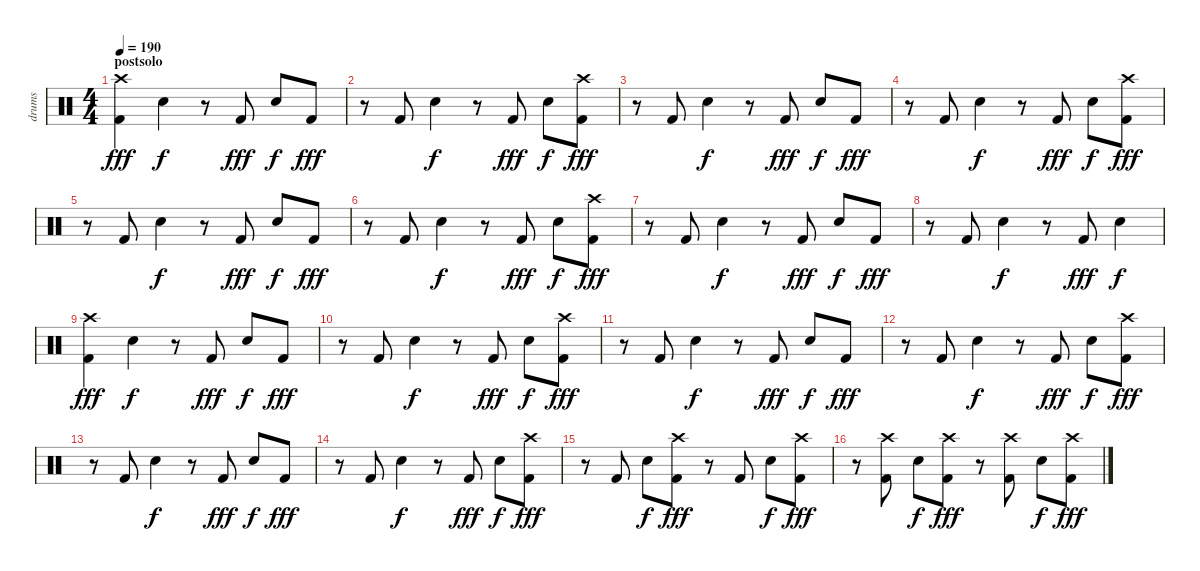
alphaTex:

\track ("drums" "drums") {instrument percussion}
\staff {score}
\articulation defaults
\ts (4 4)
\section ("" "postsolo")
\tempo 190
\clef neutral
\ks c
("Crash high (hit)" "Kick (hit) 2").4{dy fff} "Snare (hit) 2".4{dy f} r.8 "Kick (hit) 2".8{dy fff} "Snare (hit) 2".8{dy f} "Kick (hit) 2".8{dy fff} |
r.8 "Kick (hit) 2".8 "Snare (hit) 2".4{dy f} r.8 "Kick (hit) 2".8{dy fff} "Snare (hit) 2".8{dy f} ("Crash high (hit)" "Kick (hit) 2").8{dy fff} |
r.8 "Kick (hit) 2".8 "Snare (hit) 2".4{dy f} r.8 "Kick (hit) 2".8{dy fff} "Snare (hit) 2".8{dy f} "Kick (hit) 2".8{dy fff} |
r.8 "Kick (hit) 2".8 "Snare (hit) 2".4{dy f} r.8 "Kick (hit) 2".8{dy fff} "Snare (hit) 2".8{dy f} ("Crash high (hit)" "Kick (hit) 2").8{dy fff} |
r.8 "Kick (hit) 2".8 "Snare (hit) 2".4{dy f} r.8 "Kick (hit) 2".8{dy fff} "Snare (hit) 2".8{dy f} "Kick (hit) 2".8{dy fff} |
r.8 "Kick (hit) 2".8 "Snare (hit) 2".4{dy f} r.8 "Kick (hit) 2".8{dy fff} "Snare (hit) 2".8{dy f} ("Crash high (hit)" "Kick (hit) 2").8{dy fff} |
r.8 "Kick (hit) 2".8 "Snare (hit) 2".4{dy f} r.8 "Kick (hit) 2".8{dy fff} "Snare (hit) 2".8{dy f} "Kick (hit) 2".8{dy fff} |
r.8 "Kick (hit) 2".8 "Snare (hit) 2".4{dy f} r.8 "Kick (hit) 2".8{dy fff} "Snare (hit) 2".4{dy f} |
("Crash high (hit)" "Kick (hit) 2").4{dy fff} "Snare (hit) 2".4{dy f} r.8 "Kick (hit) 2".8{dy fff} "Snare (hit) 2".8{dy f} "Kick (hit) 2".8{dy fff} |
r.8 "Kick (hit) 2".8 "Snare (hit) 2".4{dy f} r.8 "Kick (hit) 2".8{dy fff} "Snare (hit) 2".8{dy f} ("Crash high (hit)" "Kick (hit) 2").8{dy fff} |
r.8 "Kick (hit) 2".8 "Snare (hit) 2".4{dy f} r.8 "Kick (hit) 2".8{dy fff} "Snare (hit) 2".8{dy f} "Kick (hit) 2".8{dy fff} |
r.8 "Kick (hit) 2".8 "Snare (hit) 2".4{dy f} r.8 "Kick (hit) 2".8{dy fff} "Snare (hit) 2".8{dy f} ("Crash high (hit)" "Kick (hit) 2").8{dy fff} |
r.8 "Kick (hit) 2".8 "Snare (hit) 2".4{dy f} r.8 "Kick (hit) 2".8{dy fff} "Snare (hit) 2".8{dy f} "Kick (hit) 2".8{dy fff} |
r.8 "Kick (hit) 2".8 "Snare (hit) 2".4{dy f} r.8 "Kick (hit) 2".8{dy fff} "Snare (hit) 2".8{dy f} ("Crash high (hit)" "Kick (hit) 2").8{dy fff} |
r.8 "Kick (hit) 2".8 "Snare (hit) 2".8{dy f} ("Crash high (hit)" "Kick (hit) 2").8{dy fff} r.8 "Kick (hit) 2".8 "Snare (hit) 2".8{dy f} ("Crash high (hit)" "Kick (hit) 2").8{dy fff} |
r.8 ("Crash high (hit)" "Kick (hit) 2").8 "Snare (hit) 2".8{dy f} ("Crash high (hit)" "Kick (hit) 2").8{dy fff} r.8 ("Crash high (hit)" "Kick (hit) 2").8 "Snare (hit) 2".8{dy f} ("Crash high (hit)" "Kick (hit) 2").8{dy fff}
